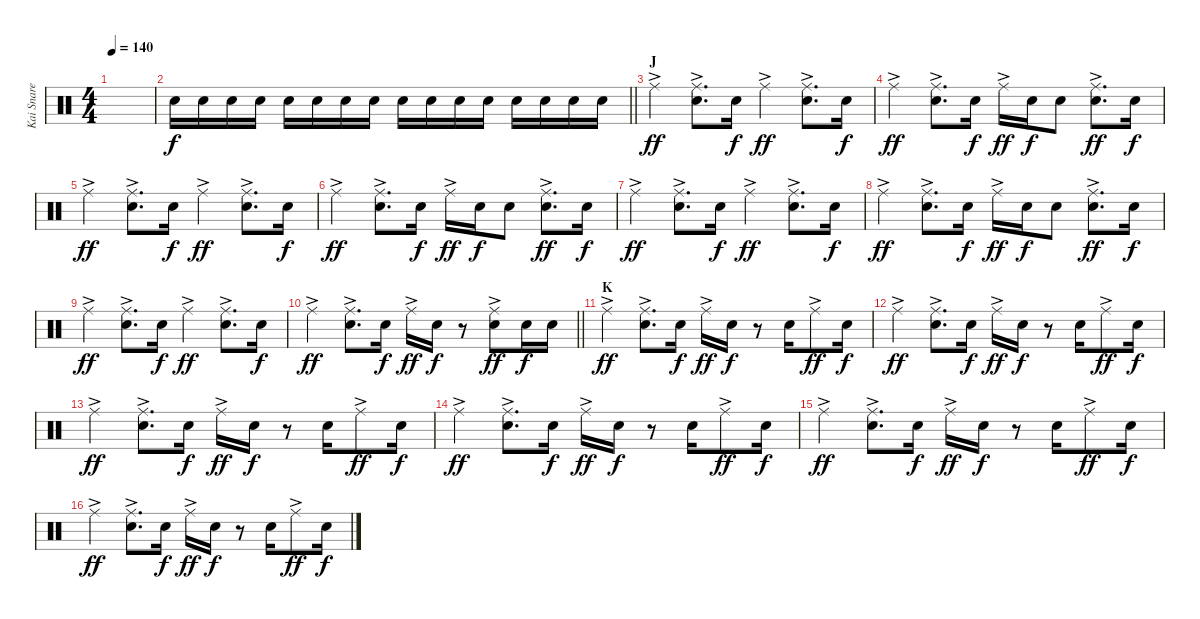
\track ("Kai Snare" "Kai Snare") {instrument percussion}
\staff {score}
\articulation defaults
\ts (4 4)
\tempo 140
\clef neutral
\ks c
|
\barLineRight lightlight "Snare (hit) 2".16{dy f volume 0} "Snare (hit) 2".16{volume 13} "Snare (hit) 2".16 "Snare (hit) 2".16 "Snare (hit) 2".16 "Snare (hit) 2".16 "Snare (hit) 2".16 "Snare (hit) 2".16 "Snare (hit) 2".16 "Snare (hit) 2".16 "Snare (hit) 2".16 "Snare (hit) 2".16 "Snare (hit) 2".16 "Snare (hit) 2".16 "Snare (hit) 2".16 "Snare (hit) 2".16
|
\section ("" "J")
"Ride (middle)"{ac}.4{dy ff} ("Ride (middle)"{ac} "Snare (hit) 2").8{d} "Snare (hit) 2".16{dy f} "Ride (middle)"{ac}.4{dy ff} ("Ride (middle)"{ac} "Snare (hit) 2").8{d} "Snare (hit) 2".16{dy f} |
"Ride (middle)"{ac}.4{dy ff} ("Ride (middle)"{ac} "Snare (hit) 2").8{d} "Snare (hit) 2".16{dy f} "Ride (middle)"{ac}.16{dy ff} "Snare (hit) 2".16{dy f} "Snare (hit) 2".8 ("Ride (middle)"{ac} "Snare (hit) 2").8{d dy ff} "Snare (hit) 2".16{dy f} |
"Ride (middle)"{ac}.4{dy ff} ("Ride (middle)"{ac} "Snare (hit) 2").8{d} "Snare (hit) 2".16{dy f} "Ride (middle)"{ac}.4{dy ff} ("Ride (middle)"{ac} "Snare (hit) 2").8{d} "Snare (hit) 2".16{dy f} |
"Ride (middle)"{ac}.4{dy ff} ("Ride (middle)"{ac} "Snare (hit) 2").8{d} "Snare (hit) 2".16{dy f} "Ride (middle)"{ac}.16{dy ff} "Snare (hit) 2".16{dy f} "Snare (hit) 2".8 ("Ride (middle)"{ac} "Snare (hit) 2").8{d dy ff} "Snare (hit) 2".16{dy f} |
"Ride (middle)"{ac}.4{dy ff} ("Ride (middle)"{ac} "Snare (hit) 2").8{d} "Snare (hit) 2".16{dy f} "Ride (middle)"{ac}.4{dy ff} ("Ride (middle)"{ac} "Snare (hit) 2").8{d} "Snare (hit) 2".16{dy f} |
"Ride (middle)"{ac}.4{dy ff} ("Ride (middle)"{ac} "Snare (hit) 2").8{d} "Snare (hit) 2".16{dy f} "Ride (middle)"{ac}.16{dy ff} "Snare (hit) 2".16{dy f} "Snare (hit) 2".8 ("Ride (middle)"{ac} "Snare (hit) 2").8{d dy ff} "Snare (hit) 2".16{dy f} |
"Ride (middle)"{ac}.4{dy ff} ("Ride (middle)"{ac} "Snare (hit) 2").8{d} "Snare (hit) 2".16{dy f} "Ride (middle)"{ac}.4{dy ff} ("Ride (middle)"{ac} "Snare (hit) 2").8{d} "Snare (hit) 2".16{dy f} |
\barLineRight lightlight "Ride (middle)"{ac}.4{dy ff}
("Ride (middle)"{ac} "Snare (hit) 2").8{d} "Snare (hit) 2".16{dy f} "Ride (middle)"{ac}.16{dy ff} "Snare (hit) 2".16{dy f} r.8 ("Ride (middle)"{ac} "Snare (hit) 2").8{dy ff} "Snare (hit) 2".16{dy f} "Snare (hit) 2".16 |
\section ("" "K")
"Ride (middle)"{ac}.4{dy ff} ("Ride (middle)"{ac} "Snare (hit) 2").8{d} "Snare (hit) 2".16{dy f} "Ride (middle)"{ac}.16{dy ff} "Snare (hit) 2".16{dy f} r.8 "Snare (hit) 2".16 "Ride (middle)"{ac}.8{dy ff} "Snare (hit) 2".16{dy f} |
"Ride (middle)"{ac}.4{dy ff} ("Ride (middle)"{ac} "Snare (hit) 2").8{d} "Snare (hit) 2".16{dy f} "Ride (middle)"{ac}.16{dy ff} "Snare (hit) 2".16{dy f} r.8 "Snare (hit) 2".16 "Ride (middle)"{ac}.8{dy ff} "Snare (hit) 2".16{dy f} |
"Ride (middle)"{ac}.4{dy ff} ("Ride (middle)"{ac} "Snare (hit) 2").8{d} "Snare (hit) 2".16{dy f} "Ride (middle)"{ac}.16{dy ff} "Snare (hit) 2".16{dy f} r.8 "Snare (hit) 2".16 "Ride (middle)"{ac}.8{dy ff} "Snare (hit) 2".16{dy f} |
"Ride (middle)"{ac}.4{dy ff} ("Ride (middle)"{ac} "Snare (hit) 2").8{d} "Snare (hit) 2".16{dy f} "Ride (middle)"{ac}.16{dy ff} "Snare (hit) 2".16{dy f} r.8 "Snare (hit) 2".16 "Ride (middle)"{ac}.8{dy ff} "Snare (hit) 2".16{dy f} |
"Ride (middle)"{ac}.4{dy ff} ("Ride (middle)"{ac} "Snare (hit) 2").8{d} "Snare (hit) 2".16{dy f} "Ride (middle)"{ac}.16{dy ff} "Snare (hit) 2".16{dy f} r.8 "Snare (hit) 2".16 "Ride (middle)"{ac}.8{dy ff} "Snare (hit) 2".16{dy f} |
"Ride (middle)"{ac}.4{dy ff} ("Ride (middle)"{ac} "Snare (hit) 2").8{d} "Snare (hit) 2".16{dy f} "Ride (middle)"{ac}.16{dy ff} "Snare (hit) 2".16{dy f} r.8 "Snare (hit) 2".16 "Ride (middle)"{ac}.8{dy ff} "Snare (hit) 2".16{dy f}
